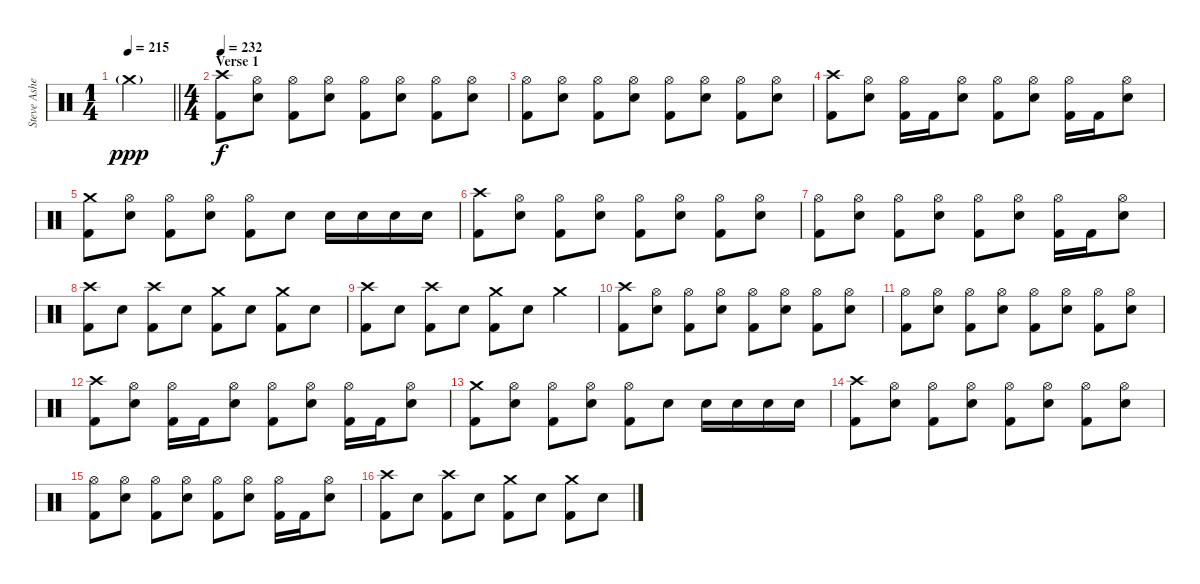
\track ("Steve Asheim" "Steve Ashe") {instrument percussion}
\staff {score}
\articulation defaults
\ts (1 4)
\tempo 215
\clef neutral
\barLineRight lightlight
\ks c "Crash medium (hit)"{g}.4{dy ppp}
|
\ts (4 4)
\section ("" "Verse 1")
\tempo 232
("Crash high (hit)" "Kick (hit) 2").8{dy f} ("Hi-Hat (open)" "Electric Snare (hit)").8 ("Hi-Hat (open)" "Kick (hit) 2").8 ("Hi-Hat (open)" "Electric Snare (hit)").8 ("Hi-Hat (open)" "Kick (hit) 2").8 ("Hi-Hat (open)" "Electric Snare (hit)").8 ("Hi-Hat (open)" "Kick (hit) 2").8 ("Hi-Hat (open)" "Electric Snare (hit)").8 |
("Hi-Hat (open)" "Kick (hit) 2").8 ("Hi-Hat (open)" "Electric Snare (hit)").8 ("Hi-Hat (open)" "Kick (hit) 2").8 ("Hi-Hat (open)" "Electric Snare (hit)").8 ("Hi-Hat (open)" "Kick (hit) 2").8 ("Hi-Hat (open)" "Electric Snare (hit)").8 ("Hi-Hat (open)" "Kick (hit) 2").8 ("Hi-Hat (open)" "Electric Snare (hit)").8 |
("Crash high (hit)" "Kick (hit) 2").8 ("Hi-Hat (open)" "Electric Snare (hit)").8 ("Hi-Hat (open)" "Kick (hit) 2").16 "Kick (hit) 2".16 ("Hi-Hat (open)" "Electric Snare (hit)").8 ("Hi-Hat (open)" "Kick (hit) 2").8 ("Hi-Hat (open)" "Electric Snare (hit)").8 ("Hi-Hat (open)" "Kick (hit) 2").16 "Kick (hit) 2".16 ("Hi-Hat (open)" "Electric Snare (hit)").8 |
("Crash medium (hit)" "Kick (hit) 2").8 ("Hi-Hat (open)" "Electric Snare (hit)").8 ("Hi-Hat (open)" "Kick (hit) 2").8 ("Hi-Hat (open)" "Electric Snare (hit)").8 ("Hi-Hat (open)" "Kick (hit) 2").8 "Electric Snare (hit)".8 "Electric Snare (hit)".16 "Electric Snare (hit)".16 "Electric Snare (hit)".16 "Electric Snare (hit)".16 |
("Crash high (hit)" "Kick (hit) 2").8 ("Hi-Hat (open)" "Electric Snare (hit)").8 ("Hi-Hat (open)" "Kick (hit) 2").8 ("Hi-Hat (open)" "Electric Snare (hit)").8 ("Hi-Hat (open)" "Kick (hit) 2").8 ("Hi-Hat (open)" "Electric Snare (hit)").8 ("Hi-Hat (open)" "Kick (hit) 2").8 ("Hi-Hat (open)" "Electric Snare (hit)").8 |
("Hi-Hat (open)" "Kick (hit) 2").8 ("Hi-Hat (open)" "Electric Snare (hit)").8 ("Hi-Hat (open)" "Kick (hit) 2").8 ("Hi-Hat (open)" "Electric Snare (hit)").8 ("Hi-Hat (open)" "Kick (hit) 2").8 ("Hi-Hat (open)" "Electric Snare (hit)").8 ("Hi-Hat (open)" "Kick (hit) 2").16 "Kick (hit) 2".16 ("Hi-Hat (open)" "Electric Snare (hit)").8 |
("Crash high (hit)" "Kick (hit) 2").8 "Electric Snare (hit)".8 ("Crash high (hit)" "Kick (hit) 2").8 "Electric Snare (hit)".8 ("Crash medium (hit)" "Kick (hit) 2").8 "Electric Snare (hit)".8 ("Crash medium (hit)" "Kick (hit) 2").8 "Electric Snare (hit)".8 |
("Crash high (hit)" "Kick (hit) 2").8 "Electric Snare (hit)".8 ("Crash high (hit)" "Kick (hit) 2").8 "Electric Snare (hit)".8 ("Crash medium (hit)" "Kick (hit) 2").8 "Electric Snare (hit)".8 "Crash medium (hit)".4 |
("Crash high (hit)" "Kick (hit) 2").8 ("Hi-Hat (open)" "Electric Snare (hit)").8 ("Hi-Hat (open)" "Kick (hit) 2").8 ("Hi-Hat (open)" "Electric Snare (hit)").8 ("Hi-Hat (open)" "Kick (hit) 2").8 ("Hi-Hat (open)" "Electric Snare (hit)").8 ("Hi-Hat (open)" "Kick (hit) 2").8 ("Hi-Hat (open)" "Electric Snare (hit)").8 |
("Hi-Hat (open)" "Kick (hit) 2").8 ("Hi-Hat (open)" "Electric Snare (hit)").8 ("Hi-Hat (open)" "Kick (hit) 2").8 ("Hi-Hat (open)" "Electric Snare (hit)").8 ("Hi-Hat (open)" "Kick (hit) 2").8 ("Hi-Hat (open)" "Electric Snare (hit)").8 ("Hi-Hat (open)" "Kick (hit) 2").8 ("Hi-Hat (open)" "Electric Snare (hit)").8 |
("Crash high (hit)" "Kick (hit) 2").8 ("Hi-Hat (open)" "Electric Snare (hit)").8 ("Hi-Hat (open)" "Kick (hit) 2").16 "Kick (hit) 2".16 ("Hi-Hat (open)" "Electric Snare (hit)").8 ("Hi-Hat (open)" "Kick (hit) 2").8 ("Hi-Hat (open)" "Electric Snare (hit)").8 ("Hi-Hat (open)" "Kick (hit) 2").16 "Kick (hit) 2".16 ("Hi-Hat (open)" "Electric Snare (hit)").8 |
("Crash medium (hit)" "Kick (hit) 2").8 ("Hi-Hat (open)" "Electric Snare (hit)").8 ("Hi-Hat (open)" "Kick (hit) 2").8 ("Hi-Hat (open)" "Electric Snare (hit)").8 ("Hi-Hat (open)" "Kick (hit) 2").8 "Electric Snare (hit)".8 "Electric Snare (hit)".16 "Electric Snare (hit)".16 "Electric Snare (hit)".16 "Electric Snare (hit)".16 |
("Crash high (hit)" "Kick (hit) 2").8 ("Hi-Hat (open)" "Electric Snare (hit)").8 ("Hi-Hat (open)" "Kick (hit) 2").8 ("Hi-Hat (open)" "Electric Snare (hit)").8 ("Hi-Hat (open)" "Kick (hit) 2").8 ("Hi-Hat (open)" "Electric Snare (hit)").8 ("Hi-Hat (open)" "Kick (hit) 2").8 ("Hi-Hat (open)" "Electric Snare (hit)").8 |
("Hi-Hat (open)" "Kick (hit) 2").8 ("Hi-Hat (open)" "Electric Snare (hit)").8 ("Hi-Hat (open)" "Kick (hit) 2").8 ("Hi-Hat (open)" "Electric Snare (hit)").8 ("Hi-Hat (open)" "Kick (hit) 2").8 ("Hi-Hat (open)" "Electric Snare (hit)").8 ("Hi-Hat (open)" "Kick (hit) 2").16 "Kick (hit) 2".16 ("Hi-Hat (open)" "Electric Snare (hit)").8 |
("Crash high (hit)" "Kick (hit) 2").8 "Electric Snare (hit)".8 ("Crash high (hit)" "Kick (hit) 2").8 "Electric Snare (hit)".8 ("Crash medium (hit)" "Kick (hit) 2").8 "Electric Snare (hit)".8 ("Crash medium (hit)" "Kick (hit) 2").8 "Electric Snare (hit)".8
